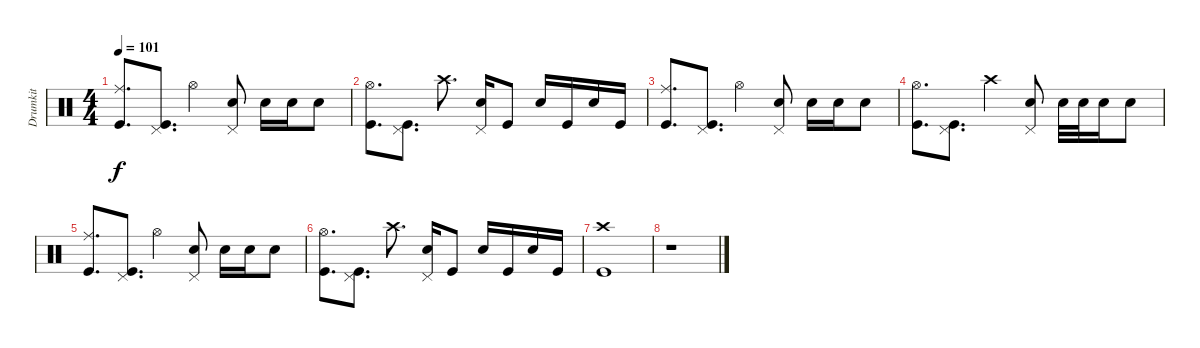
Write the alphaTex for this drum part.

\track ("Drumkit" "Drumkit") {instrument percussion}
\staff {score}
\articulation defaults
\ts (4 4)
\tempo 101
\clef neutral
\ks c
("Kick (hit)" "Ride (middle)").8{d dy f} ("Kick (hit)" "Pedal Hi-Hat (hit)").8{d} "Hi-Hat (open)".4 ("Snare (hit) 2" "Pedal Hi-Hat (hit)").8 "Snare (hit) 2".16 "Snare (hit) 2".16 "Snare (hit) 2".8 |
("Kick (hit)" "Hi-Hat (open)").8{d} ("Kick (hit)" "Pedal Hi-Hat (hit)").8{d} "Crash high (hit)".8{d} ("Snare (hit) 2" "Pedal Hi-Hat (hit)").16 "Kick (hit)".8 "Snare (hit) 2".16 "Kick (hit)".16 "Snare (hit) 2".16 "Kick (hit)".16 |
("Kick (hit)" "Ride (middle)").8{d} ("Kick (hit)" "Pedal Hi-Hat (hit)").8{d} "Hi-Hat (open)".4 ("Snare (hit) 2" "Pedal Hi-Hat (hit)").8 "Snare (hit) 2".16 "Snare (hit) 2".16 "Snare (hit) 2".8 |
("Kick (hit)" "Hi-Hat (open)").8{d} ("Kick (hit)" "Pedal Hi-Hat (hit)").8{d} "Crash high (hit)".4 ("Snare (hit) 2" "Pedal Hi-Hat (hit)").8 "Snare (hit) 2".32 "Snare (hit) 2".32 "Snare (hit) 2".16 "Snare (hit) 2".8 |
("Kick (hit)" "Ride (middle)").8{d} ("Kick (hit)" "Pedal Hi-Hat (hit)").8{d} "Hi-Hat (open)".4 ("Snare (hit) 2" "Pedal Hi-Hat (hit)").8 "Snare (hit) 2".16 "Snare (hit) 2".16 "Snare (hit) 2".8 |
("Kick (hit)" "Hi-Hat (open)").8{d} ("Kick (hit)" "Pedal Hi-Hat (hit)").8{d} "Crash high (hit)".8{d} ("Snare (hit) 2" "Pedal Hi-Hat (hit)").16 "Kick (hit)".8 "Snare (hit) 2".16 "Kick (hit)".16 "Snare (hit) 2".16 "Kick (hit)".16 |
("Kick (hit)" "Crash high (hit)").1 |
r.1
